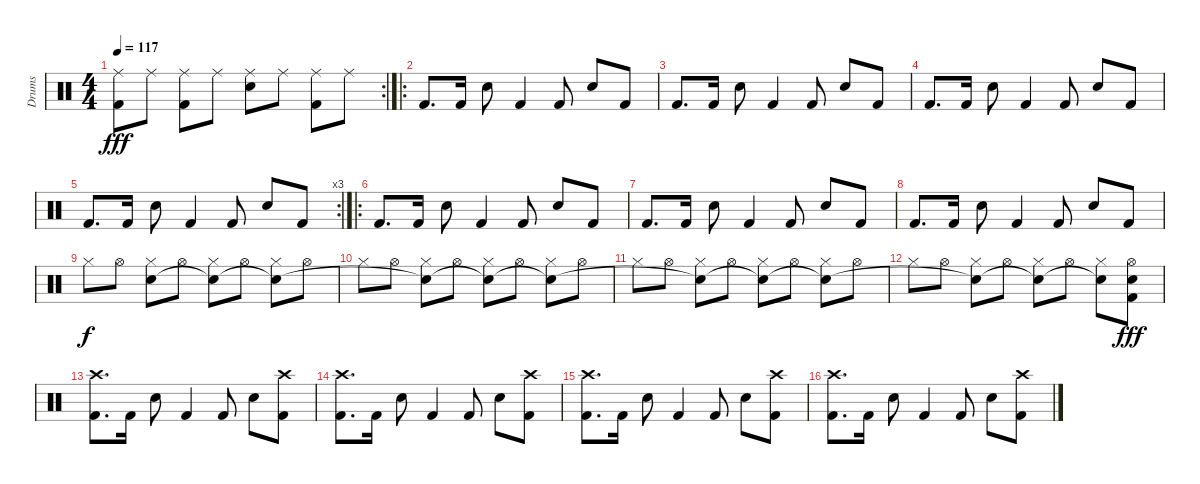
\track ("Drums" "Drums") {instrument percussion}
\staff {score}
\articulation defaults
\rc 2
\ts (4 4)
\tempo 117
\clef neutral
\ks c
("Ride (middle)" "Kick (hit) 2").8{dy fff} "Ride (middle)".8 ("Ride (middle)" "Kick (hit) 2").8 "Ride (middle)".8 ("Ride (middle)" "Snare (hit) 2").8 "Ride (middle)".8 ("Ride (middle)" "Kick (hit) 2").8 "Ride (middle)".8 |
\ro "Kick (hit) 2".8{d} "Kick (hit) 2".16 "Snare (hit) 2".8 "Kick (hit) 2".4 "Kick (hit) 2".8 "Snare (hit) 2".8 "Kick (hit) 2".8
|
"Kick (hit) 2".8{d} "Kick (hit) 2".16 "Snare (hit) 2".8 "Kick (hit) 2".4 "Kick (hit) 2".8 "Snare (hit) 2".8 "Kick (hit) 2".8 |
"Kick (hit) 2".8{d} "Kick (hit) 2".16 "Snare (hit) 2".8 "Kick (hit) 2".4 "Kick (hit) 2".8 "Snare (hit) 2".8 "Kick (hit) 2".8 |
\rc 3 "Kick (hit) 2".8{d} "Kick (hit) 2".16 "Snare (hit) 2".8 "Kick (hit) 2".4 "Kick (hit) 2".8 "Snare (hit) 2".8 "Kick (hit) 2".8
|
\ro "Kick (hit) 2".8{d} "Kick (hit) 2".16 "Snare (hit) 2".8 "Kick (hit) 2".4 "Kick (hit) 2".8 "Snare (hit) 2".8 "Kick (hit) 2".8
|
"Kick (hit) 2".8{d} "Kick (hit) 2".16 "Snare (hit) 2".8 "Kick (hit) 2".4 "Kick (hit) 2".8 "Snare (hit) 2".8 "Kick (hit) 2".8 |
"Kick (hit) 2".8{d} "Kick (hit) 2".16 "Snare (hit) 2".8 "Kick (hit) 2".4 "Kick (hit) 2".8 "Snare (hit) 2".8 "Kick (hit) 2".8 |
"Hi-Hat (closed)".8{dy f} "Hi-Hat (open)".8 ("Hi-Hat (closed)" "Snare (hit)").8 "Hi-Hat (open)".8 ("Hi-Hat (closed)" "Snare (hit)"{t}).8 "Hi-Hat (open)".8 ("Hi-Hat (closed)" "Snare (hit)"{t}).8 "Hi-Hat (open)".8 |
"Hi-Hat (closed)".8 "Hi-Hat (open)".8 ("Hi-Hat (closed)" "Snare (hit)"{t}).8 "Hi-Hat (open)".8 ("Hi-Hat (closed)" "Snare (hit)"{t}).8 "Hi-Hat (open)".8 ("Hi-Hat (closed)" "Snare (hit)"{t}).8 "Hi-Hat (open)".8 |
"Hi-Hat (closed)".8 "Hi-Hat (open)".8 ("Hi-Hat (closed)" "Snare (hit)"{t}).8 "Hi-Hat (open)".8 ("Hi-Hat (closed)" "Snare (hit)"{t}).8 "Hi-Hat (open)".8 ("Hi-Hat (closed)" "Snare (hit)"{t}).8 "Hi-Hat (open)".8 |
"Hi-Hat (closed)".8 "Hi-Hat (open)".8 ("Hi-Hat (closed)" "Snare (hit)"{t}).8 "Hi-Hat (open)".8 ("Hi-Hat (closed)" "Snare (hit)"{t}).8 "Hi-Hat (open)".8 ("Hi-Hat (closed)" "Snare (hit)"{t}).8 ("Hi-Hat (open)" "Snare (hit) 2" "Kick (hit) 2").8{dy fff} |
("Crash high (hit)" "Kick (hit) 2").8{d} "Kick (hit) 2".16 "Snare (hit) 2".8 "Kick (hit) 2".4 "Kick (hit) 2".8 "Snare (hit) 2".8 ("Crash high (hit)" "Kick (hit) 2").8 |
("Crash high (hit)" "Kick (hit) 2").8{d} "Kick (hit) 2".16 "Snare (hit) 2".8 "Kick (hit) 2".4 "Kick (hit) 2".8 "Snare (hit) 2".8 ("Crash high (hit)" "Kick (hit) 2").8 |
("Crash high (hit)" "Kick (hit) 2").8{d} "Kick (hit) 2".16 "Snare (hit) 2".8 "Kick (hit) 2".4 "Kick (hit) 2".8 "Snare (hit) 2".8 ("Crash high (hit)" "Kick (hit) 2").8 |
("Crash high (hit)" "Kick (hit) 2").8{d} "Kick (hit) 2".16 "Snare (hit) 2".8 "Kick (hit) 2".4 "Kick (hit) 2".8 "Snare (hit) 2".8 ("Crash high (hit)" "Kick (hit) 2").8
